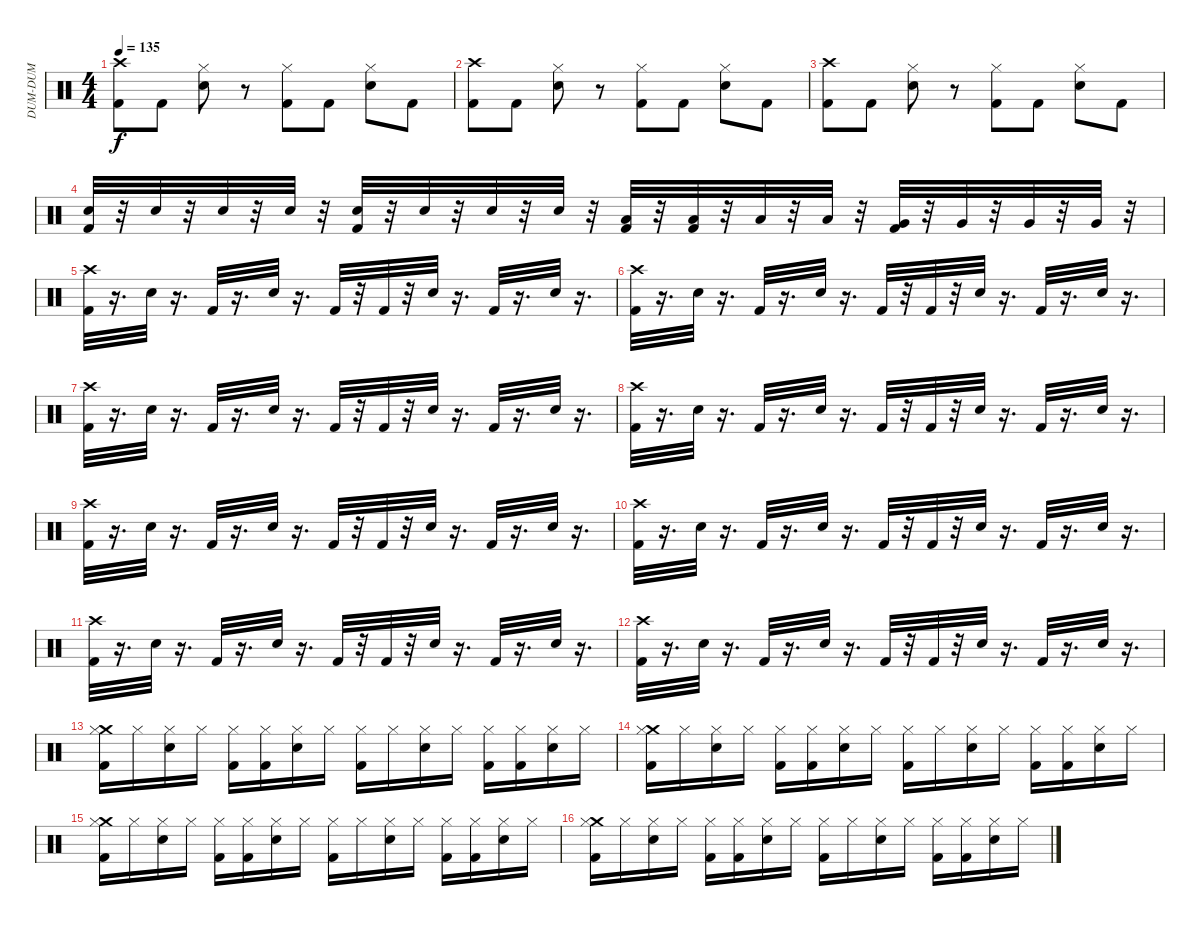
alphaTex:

\track ("DUM-DUM" "DUM-DUM") {instrument percussion}
\staff {score}
\articulation defaults
\ts (4 4)
\tempo 135
\clef neutral
\ks c
("Crash high (hit)" "Kick (hit) 2").8{dy f} "Kick (hit) 2".8 ("Hi-Hat (closed)" "Electric Snare (hit)").8 r.8 ("Hi-Hat (closed)" "Kick (hit) 2").8 "Kick (hit) 2".8 ("Hi-Hat (closed)" "Electric Snare (hit)").8 "Kick (hit) 2".8 |
("Crash high (hit)" "Kick (hit) 2").8 "Kick (hit) 2".8 ("Hi-Hat (closed)" "Electric Snare (hit)").8 r.8 ("Hi-Hat (closed)" "Kick (hit) 2").8 "Kick (hit) 2".8 ("Hi-Hat (closed)" "Electric Snare (hit)").8 "Kick (hit) 2".8 |
("Crash high (hit)" "Kick (hit) 2").8 "Kick (hit) 2".8 ("Hi-Hat (closed)" "Electric Snare (hit)").8 r.8 ("Hi-Hat (closed)" "Kick (hit) 2").8 "Kick (hit) 2".8 ("Hi-Hat (closed)" "Electric Snare (hit)").8 "Kick (hit) 2".8 |
("Kick (hit) 2" "Electric Snare (hit)").32 r.32 "Electric Snare (hit)".32 r.32 "Electric Snare (hit)".32 r.32 "Electric Snare (hit)".32 r.32 ("Kick (hit) 2" "Electric Snare (hit)").32 r.32 "Electric Snare (hit)".32 r.32 "Electric Snare (hit)".32 r.32 "Electric Snare (hit)".32 r.32 ("Kick (hit) 2" "Low Tom (hit)").32 r.32 ("Kick (hit) 2" "Low Tom (hit)").32 r.32 "Low Tom (hit)".32 r.32 "Low Tom (hit)".32 r.32 ("Kick (hit) 2" "Very Low Tom (hit)").32 r.32 "Very Low Tom (hit)".32 r.32 "Very Low Tom (hit)".32 r.32 "Very Low Tom (hit)".32 r.32 |
("Kick (hit) 2" "Crash high (hit)").32 r.16{d} "Electric Snare (hit)".32 r.16{d} "Kick (hit) 2".32 r.16{d} "Electric Snare (hit)".32 r.16{d} "Kick (hit) 2".32 r.32 "Kick (hit) 2".32 r.32 "Electric Snare (hit)".32 r.16{d} "Kick (hit) 2".32 r.16{d} "Electric Snare (hit)".32 r.16{d} |
("Kick (hit) 2" "Crash high (hit)").32 r.16{d} "Electric Snare (hit)".32 r.16{d} "Kick (hit) 2".32 r.16{d} "Electric Snare (hit)".32 r.16{d} "Kick (hit) 2".32 r.32 "Kick (hit) 2".32 r.32 "Electric Snare (hit)".32 r.16{d} "Kick (hit) 2".32 r.16{d} "Electric Snare (hit)".32 r.16{d} |
("Kick (hit) 2" "Crash high (hit)").32 r.16{d} "Electric Snare (hit)".32 r.16{d} "Kick (hit) 2".32 r.16{d} "Electric Snare (hit)".32 r.16{d} "Kick (hit) 2".32 r.32 "Kick (hit) 2".32 r.32 "Electric Snare (hit)".32 r.16{d} "Kick (hit) 2".32 r.16{d} "Electric Snare (hit)".32 r.16{d} |
("Kick (hit) 2" "Crash high (hit)").32 r.16{d} "Electric Snare (hit)".32 r.16{d} "Kick (hit) 2".32 r.16{d} "Electric Snare (hit)".32 r.16{d} "Kick (hit) 2".32 r.32 "Kick (hit) 2".32 r.32 "Electric Snare (hit)".32 r.16{d} "Kick (hit) 2".32 r.16{d} "Electric Snare (hit)".32 r.16{d} |
("Kick (hit) 2" "Crash high (hit)").32 r.16{d} "Electric Snare (hit)".32 r.16{d} "Kick (hit) 2".32 r.16{d} "Electric Snare (hit)".32 r.16{d} "Kick (hit) 2".32 r.32 "Kick (hit) 2".32 r.32 "Electric Snare (hit)".32 r.16{d} "Kick (hit) 2".32 r.16{d} "Electric Snare (hit)".32 r.16{d} |
("Kick (hit) 2" "Crash high (hit)").32 r.16{d} "Electric Snare (hit)".32 r.16{d} "Kick (hit) 2".32 r.16{d} "Electric Snare (hit)".32 r.16{d} "Kick (hit) 2".32 r.32 "Kick (hit) 2".32 r.32 "Electric Snare (hit)".32 r.16{d} "Kick (hit) 2".32 r.16{d} "Electric Snare (hit)".32 r.16{d} |
("Kick (hit) 2" "Crash high (hit)").32 r.16{d} "Electric Snare (hit)".32 r.16{d} "Kick (hit) 2".32 r.16{d} "Electric Snare (hit)".32 r.16{d} "Kick (hit) 2".32 r.32 "Kick (hit) 2".32 r.32 "Electric Snare (hit)".32 r.16{d} "Kick (hit) 2".32 r.16{d} "Electric Snare (hit)".32 r.16{d} |
("Kick (hit) 2" "Crash high (hit)").32 r.16{d} "Electric Snare (hit)".32 r.16{d} "Kick (hit) 2".32 r.16{d} "Electric Snare (hit)".32 r.16{d} "Kick (hit) 2".32 r.32 "Kick (hit) 2".32 r.32 "Electric Snare (hit)".32 r.16{d} "Kick (hit) 2".32 r.16{d} "Electric Snare (hit)".32 r.16{d} |
("Crash medium (hit)" "Hi-Hat (closed)" "Kick (hit) 2").16 "Hi-Hat (closed)".16 ("Hi-Hat (closed)" "Snare (hit) 2").16 "Hi-Hat (closed)".16 ("Hi-Hat (closed)" "Kick (hit) 2").16 ("Hi-Hat (closed)" "Kick (hit) 2").16 ("Hi-Hat (closed)" "Snare (hit) 2").16 "Hi-Hat (closed)".16 ("Hi-Hat (closed)" "Kick (hit) 2").16 "Hi-Hat (closed)".16 ("Hi-Hat (closed)" "Snare (hit) 2").16 "Hi-Hat (closed)".16 ("Hi-Hat (closed)" "Kick (hit) 2").16 ("Hi-Hat (closed)" "Kick (hit) 2").16 ("Hi-Hat (closed)" "Snare (hit) 2").16 "Hi-Hat (closed)".16 |
("Crash medium (hit)" "Hi-Hat (closed)" "Kick (hit) 2").16 "Hi-Hat (closed)".16 ("Hi-Hat (closed)" "Snare (hit) 2").16 "Hi-Hat (closed)".16 ("Hi-Hat (closed)" "Kick (hit) 2").16 ("Hi-Hat (closed)" "Kick (hit) 2").16 ("Hi-Hat (closed)" "Snare (hit) 2").16 "Hi-Hat (closed)".16 ("Hi-Hat (closed)" "Kick (hit) 2").16 "Hi-Hat (closed)".16 ("Hi-Hat (closed)" "Snare (hit) 2").16 "Hi-Hat (closed)".16 ("Hi-Hat (closed)" "Kick (hit) 2").16 ("Hi-Hat (closed)" "Kick (hit) 2").16 ("Hi-Hat (closed)" "Snare (hit) 2").16 "Hi-Hat (closed)".16 |
("Crash medium (hit)" "Hi-Hat (closed)" "Kick (hit) 2").16 "Hi-Hat (closed)".16 ("Hi-Hat (closed)" "Snare (hit) 2").16 "Hi-Hat (closed)".16 ("Hi-Hat (closed)" "Kick (hit) 2").16 ("Hi-Hat (closed)" "Kick (hit) 2").16 ("Hi-Hat (closed)" "Snare (hit) 2").16 "Hi-Hat (closed)".16 ("Hi-Hat (closed)" "Kick (hit) 2").16 "Hi-Hat (closed)".16 ("Hi-Hat (closed)" "Snare (hit) 2").16 "Hi-Hat (closed)".16 ("Hi-Hat (closed)" "Kick (hit) 2").16 ("Hi-Hat (closed)" "Kick (hit) 2").16 ("Hi-Hat (closed)" "Snare (hit) 2").16 "Hi-Hat (closed)".16 |
("Crash medium (hit)" "Hi-Hat (closed)" "Kick (hit) 2").16 "Hi-Hat (closed)".16 ("Hi-Hat (closed)" "Snare (hit) 2").16 "Hi-Hat (closed)".16 ("Hi-Hat (closed)" "Kick (hit) 2").16 ("Hi-Hat (closed)" "Kick (hit) 2").16 ("Hi-Hat (closed)" "Snare (hit) 2").16 "Hi-Hat (closed)".16 ("Hi-Hat (closed)" "Kick (hit) 2").16 "Hi-Hat (closed)".16 ("Hi-Hat (closed)" "Snare (hit) 2").16 "Hi-Hat (closed)".16 ("Hi-Hat (closed)" "Kick (hit) 2").16 ("Hi-Hat (closed)" "Kick (hit) 2").16 ("Hi-Hat (closed)" "Snare (hit) 2").16 "Hi-Hat (closed)".16
